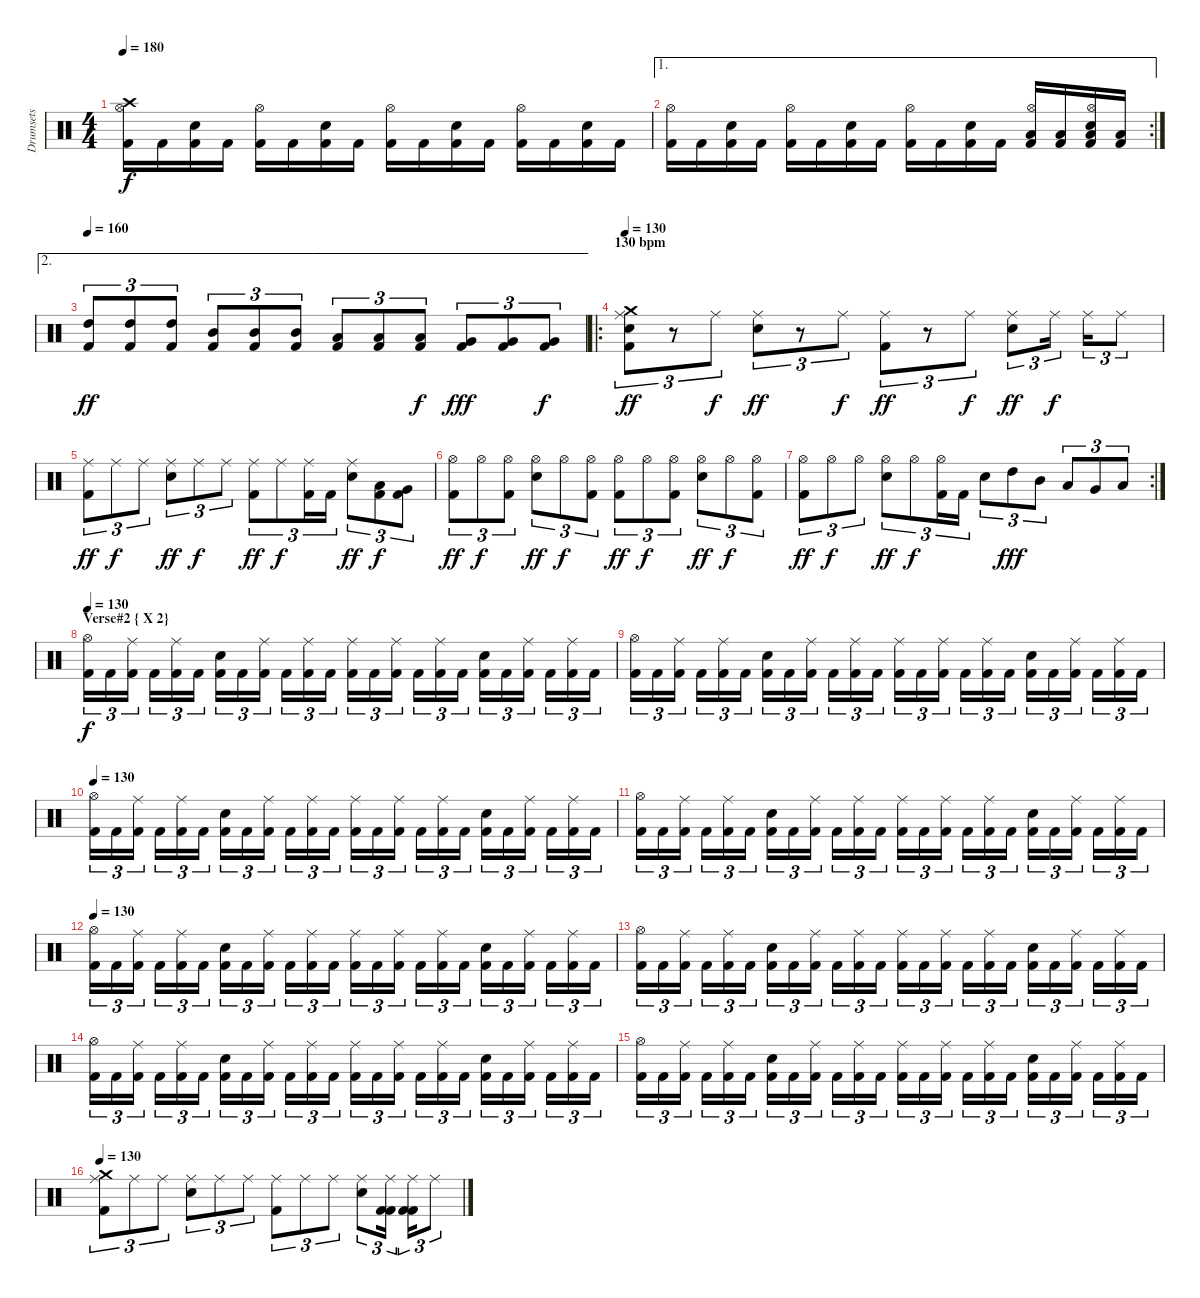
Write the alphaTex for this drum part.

\track ("Drumsets" "Drumsets") {instrument percussion}
\staff {score}
\articulation defaults
\ts (4 4)
\tempo 180
\clef neutral
\ks c
("Kick (hit) 2" "Hi-Hat (open)" "Crash high (hit)").16{dy f} "Kick (hit) 2".16 ("Kick (hit) 2" "Electric Snare (hit)").16 "Kick (hit) 2".16 ("Kick (hit) 2" "Hi-Hat (open)").16 "Kick (hit) 2".16 ("Kick (hit) 2" "Electric Snare (hit)").16 "Kick (hit) 2".16 ("Kick (hit) 2" "Hi-Hat (open)").16 "Kick (hit) 2".16 ("Kick (hit) 2" "Electric Snare (hit)").16 "Kick (hit) 2".16 ("Kick (hit) 2" "Hi-Hat (open)").16 "Kick (hit) 2".16 ("Kick (hit) 2" "Electric Snare (hit)").16 "Kick (hit) 2".16 |
\ae 1
\rc 2
("Kick (hit) 2" "Hi-Hat (open)").16 "Kick (hit) 2".16 ("Kick (hit) 2" "Electric Snare (hit)").16 "Kick (hit) 2".16 ("Kick (hit) 2" "Hi-Hat (open)").16 "Kick (hit) 2".16 ("Kick (hit) 2" "Electric Snare (hit)").16 "Kick (hit) 2".16 ("Kick (hit) 2" "Hi-Hat (open)").16 "Kick (hit) 2".16 ("Kick (hit) 2" "Electric Snare (hit)").16 "Kick (hit) 2".16 ("Kick (hit) 2" "Hi-Hat (open)" "Low Tom (hit)").16 ("Kick (hit) 2" "Low Tom (hit)").16 ("Kick (hit) 2" "Electric Snare (hit)" "Hi-Hat (open)" "Low Tom (hit)").16 ("Kick (hit) 2" "Low Tom (hit)").16 |
\ae 2
\tempo 160
("Kick (hit) 2" "High Tom (hit)").8{tu (3 2) dy ff} ("Kick (hit) 2" "High Tom (hit)").8{tu (3 2)} ("Kick (hit) 2" "High Tom (hit)").8{tu (3 2)} ("Kick (hit) 2" "Mid Tom (hit)").8{tu (3 2)} ("Kick (hit) 2" "Mid Tom (hit)").8{tu (3 2)} ("Kick (hit) 2" "Mid Tom (hit)").8{tu (3 2)} ("Kick (hit) 2" "Low Tom (hit)").8{tu (3 2)} ("Kick (hit) 2" "Low Tom (hit)").8{tu (3 2)} ("Kick (hit) 2" "Low Tom (hit)").8{tu (3 2) dy f} ("Kick (hit) 2" "Very Low Tom (hit)").8{tu (3 2) dy fff} ("Kick (hit) 2" "Very Low Tom (hit)").8{tu (3 2)} ("Kick (hit) 2" "Very Low Tom (hit)").8{tu (3 2) dy f} |
\ro
\section ("" "130 bpm")
\tempo 130
("Kick (hit) 2" "Snare (hit) 2" "Ride (middle)" "Crash medium (hit)").8{tu (3 2) dy ff} r.8{tu (3 2)} "Ride (middle)".8{tu (3 2) dy f} ("Snare (hit) 2" "Ride (middle)").8{tu (3 2) dy ff} r.8{tu (3 2)} "Ride (middle)".8{tu (3 2) dy f} ("Kick (hit) 2" "Ride (middle)").8{tu (3 2) dy ff} r.8{tu (3 2)} "Ride (middle)".8{tu (3 2) dy f} ("Snare (hit) 2" "Ride (middle)").8{tu (3 2) dy ff} "Ride (middle)".16{tu (3 2) dy f} "Ride (middle)".16{tu (3 2)} "Ride (middle)".8{tu (3 2)} |
("Kick (hit) 2" "Ride (middle)").8{tu (3 2) dy ff} "Ride (middle)".8{tu (3 2) dy f} "Ride (middle)".8{tu (3 2)} ("Snare (hit) 2" "Ride (middle)").8{tu (3 2) dy ff} "Ride (middle)".8{tu (3 2) dy f} "Ride (middle)".8{tu (3 2)} ("Kick (hit) 2" "Ride (middle)").8{tu (3 2) dy ff} "Ride (middle)".8{tu (3 2) dy f} ("Kick (hit) 2" "Ride (middle)").16{tu (3 2)} "Kick (hit) 2".16{tu (3 2)} ("Snare (hit) 2" "Ride (middle)").8{tu (3 2) dy ff} ("Kick (hit) 2" "Low Tom (hit)").8{tu (3 2) dy f} ("Kick (hit) 2" "Very Low Tom (hit)").8{tu (3 2)} |
("Kick (hit) 2" "Hi-Hat (open)").8{tu (3 2) dy ff} "Hi-Hat (open)".8{tu (3 2) dy f} ("Kick (hit) 2" "Hi-Hat (open)").8{tu (3 2)} ("Snare (hit) 2" "Hi-Hat (open)").8{tu (3 2) dy ff} "Hi-Hat (open)".8{tu (3 2) dy f} ("Kick (hit) 2" "Hi-Hat (open)").8{tu (3 2)} ("Kick (hit) 2" "Hi-Hat (open)").8{tu (3 2) dy ff} "Hi-Hat (open)".8{tu (3 2) dy f} ("Kick (hit) 2" "Hi-Hat (open)").8{tu (3 2)} ("Snare (hit) 2" "Hi-Hat (open)").8{tu (3 2) dy ff} "Hi-Hat (open)".8{tu (3 2) dy f} ("Kick (hit) 2" "Hi-Hat (open)").8{tu (3 2)} |
\rc 2
("Kick (hit) 2" "Hi-Hat (open)").8{tu (3 2) dy ff} "Hi-Hat (open)".8{tu (3 2) dy f} "Hi-Hat (open)".8{tu (3 2)} ("Snare (hit) 2" "Hi-Hat (open)").8{tu (3 2) dy ff} "Hi-Hat (open)".8{tu (3 2) dy f} ("Kick (hit) 2" "Hi-Hat (open)").16{tu (3 2)} "Kick (hit) 2".16{tu (3 2)} "Electric Snare (hit)".8{tu (3 2)} "High Tom (hit)".8{tu (3 2) dy fff} "Mid Tom (hit)".8{tu (3 2)} "Low Tom (hit)".8{tu (3 2)} "Very Low Tom (hit)".8{tu (3 2)} "Low Floor Tom (hit)".8{tu (3 2)} |
\section ("" "Verse#2 { X 2}")
\tempo 130
("Hi-Hat (open)" "Kick (hit) 2").16{tu (3 2) dy f} "Kick (hit) 2".16{tu (3 2)} ("Ride (middle)" "Kick (hit) 2").16{tu (3 2)} "Kick (hit) 2".16{tu (3 2)} ("Ride (middle)" "Kick (hit) 2").16{tu (3 2)} "Kick (hit) 2".16{tu (3 2)} ("Snare (hit) 2" "Kick (hit) 2").16{tu (3 2)} "Kick (hit) 2".16{tu (3 2)} ("Ride (middle)" "Kick (hit) 2").16{tu (3 2)} "Kick (hit) 2".16{tu (3 2)} ("Ride (middle)" "Kick (hit) 2").16{tu (3 2)} "Kick (hit) 2".16{tu (3 2)} ("Ride (middle)" "Kick (hit) 2").16{tu (3 2)} "Kick (hit) 2".16{tu (3 2)} ("Ride (middle)" "Kick (hit) 2").16{tu (3 2)} "Kick (hit) 2".16{tu (3 2)} ("Ride (middle)" "Kick (hit) 2").16{tu (3 2)} "Kick (hit) 2".16{tu (3 2)} ("Snare (hit) 2" "Kick (hit) 2").16{tu (3 2)} "Kick (hit) 2".16{tu (3 2)} ("Ride (middle)" "Kick (hit) 2").16{tu (3 2)} "Kick (hit) 2".16{tu (3 2)} ("Ride (middle)" "Kick (hit) 2").16{tu (3 2)} "Kick (hit) 2".16{tu (3 2)} |
("Hi-Hat (open)" "Kick (hit) 2").16{tu (3 2)} "Kick (hit) 2".16{tu (3 2)} ("Ride (middle)" "Kick (hit) 2").16{tu (3 2)} "Kick (hit) 2".16{tu (3 2)} ("Ride (middle)" "Kick (hit) 2").16{tu (3 2)} "Kick (hit) 2".16{tu (3 2)} ("Snare (hit) 2" "Kick (hit) 2").16{tu (3 2)} "Kick (hit) 2".16{tu (3 2)} ("Ride (middle)" "Kick (hit) 2").16{tu (3 2)} "Kick (hit) 2".16{tu (3 2)} ("Ride (middle)" "Kick (hit) 2").16{tu (3 2)} "Kick (hit) 2".16{tu (3 2)} ("Ride (middle)" "Kick (hit) 2").16{tu (3 2)} "Kick (hit) 2".16{tu (3 2)} ("Ride (middle)" "Kick (hit) 2").16{tu (3 2)} "Kick (hit) 2".16{tu (3 2)} ("Ride (middle)" "Kick (hit) 2").16{tu (3 2)} "Kick (hit) 2".16{tu (3 2)} ("Snare (hit) 2" "Kick (hit) 2").16{tu (3 2)} "Kick (hit) 2".16{tu (3 2)} ("Ride (middle)" "Kick (hit) 2").16{tu (3 2)} "Kick (hit) 2".16{tu (3 2)} ("Ride (middle)" "Kick (hit) 2").16{tu (3 2)} "Kick (hit) 2".16{tu (3 2)} |
\tempo 130
("Hi-Hat (open)" "Kick (hit) 2").16{tu (3 2)} "Kick (hit) 2".16{tu (3 2)} ("Ride (middle)" "Kick (hit) 2").16{tu (3 2)} "Kick (hit) 2".16{tu (3 2)} ("Ride (middle)" "Kick (hit) 2").16{tu (3 2)} "Kick (hit) 2".16{tu (3 2)} ("Snare (hit) 2" "Kick (hit) 2").16{tu (3 2)} "Kick (hit) 2".16{tu (3 2)} ("Ride (middle)" "Kick (hit) 2").16{tu (3 2)} "Kick (hit) 2".16{tu (3 2)} ("Ride (middle)" "Kick (hit) 2").16{tu (3 2)} "Kick (hit) 2".16{tu (3 2)} ("Ride (middle)" "Kick (hit) 2").16{tu (3 2)} "Kick (hit) 2".16{tu (3 2)} ("Ride (middle)" "Kick (hit) 2").16{tu (3 2)} "Kick (hit) 2".16{tu (3 2)} ("Ride (middle)" "Kick (hit) 2").16{tu (3 2)} "Kick (hit) 2".16{tu (3 2)} ("Snare (hit) 2" "Kick (hit) 2").16{tu (3 2)} "Kick (hit) 2".16{tu (3 2)} ("Ride (middle)" "Kick (hit) 2").16{tu (3 2)} "Kick (hit) 2".16{tu (3 2)} ("Ride (middle)" "Kick (hit) 2").16{tu (3 2)} "Kick (hit) 2".16{tu (3 2)} |
("Hi-Hat (open)" "Kick (hit) 2").16{tu (3 2)} "Kick (hit) 2".16{tu (3 2)} ("Ride (middle)" "Kick (hit) 2").16{tu (3 2)} "Kick (hit) 2".16{tu (3 2)} ("Ride (middle)" "Kick (hit) 2").16{tu (3 2)} "Kick (hit) 2".16{tu (3 2)} ("Snare (hit) 2" "Kick (hit) 2").16{tu (3 2)} "Kick (hit) 2".16{tu (3 2)} ("Ride (middle)" "Kick (hit) 2").16{tu (3 2)} "Kick (hit) 2".16{tu (3 2)} ("Ride (middle)" "Kick (hit) 2").16{tu (3 2)} "Kick (hit) 2".16{tu (3 2)} ("Ride (middle)" "Kick (hit) 2").16{tu (3 2)} "Kick (hit) 2".16{tu (3 2)} ("Ride (middle)" "Kick (hit) 2").16{tu (3 2)} "Kick (hit) 2".16{tu (3 2)} ("Ride (middle)" "Kick (hit) 2").16{tu (3 2)} "Kick (hit) 2".16{tu (3 2)} ("Snare (hit) 2" "Kick (hit) 2").16{tu (3 2)} "Kick (hit) 2".16{tu (3 2)} ("Ride (middle)" "Kick (hit) 2").16{tu (3 2)} "Kick (hit) 2".16{tu (3 2)} ("Ride (middle)" "Kick (hit) 2").16{tu (3 2)} "Kick (hit) 2".16{tu (3 2)} |
\tempo 130
("Hi-Hat (open)" "Kick (hit) 2").16{tu (3 2)} "Kick (hit) 2".16{tu (3 2)} ("Ride (middle)" "Kick (hit) 2").16{tu (3 2)} "Kick (hit) 2".16{tu (3 2)} ("Ride (middle)" "Kick (hit) 2").16{tu (3 2)} "Kick (hit) 2".16{tu (3 2)} ("Snare (hit) 2" "Kick (hit) 2").16{tu (3 2)} "Kick (hit) 2".16{tu (3 2)} ("Ride (middle)" "Kick (hit) 2").16{tu (3 2)} "Kick (hit) 2".16{tu (3 2)} ("Ride (middle)" "Kick (hit) 2").16{tu (3 2)} "Kick (hit) 2".16{tu (3 2)} ("Ride (middle)" "Kick (hit) 2").16{tu (3 2)} "Kick (hit) 2".16{tu (3 2)} ("Ride (middle)" "Kick (hit) 2").16{tu (3 2)} "Kick (hit) 2".16{tu (3 2)} ("Ride (middle)" "Kick (hit) 2").16{tu (3 2)} "Kick (hit) 2".16{tu (3 2)} ("Snare (hit) 2" "Kick (hit) 2").16{tu (3 2)} "Kick (hit) 2".16{tu (3 2)} ("Ride (middle)" "Kick (hit) 2").16{tu (3 2)} "Kick (hit) 2".16{tu (3 2)} ("Ride (middle)" "Kick (hit) 2").16{tu (3 2)} "Kick (hit) 2".16{tu (3 2)} |
("Hi-Hat (open)" "Kick (hit) 2").16{tu (3 2)} "Kick (hit) 2".16{tu (3 2)} ("Ride (middle)" "Kick (hit) 2").16{tu (3 2)} "Kick (hit) 2".16{tu (3 2)} ("Ride (middle)" "Kick (hit) 2").16{tu (3 2)} "Kick (hit) 2".16{tu (3 2)} ("Snare (hit) 2" "Kick (hit) 2").16{tu (3 2)} "Kick (hit) 2".16{tu (3 2)} ("Ride (middle)" "Kick (hit) 2").16{tu (3 2)} "Kick (hit) 2".16{tu (3 2)} ("Ride (middle)" "Kick (hit) 2").16{tu (3 2)} "Kick (hit) 2".16{tu (3 2)} ("Ride (middle)" "Kick (hit) 2").16{tu (3 2)} "Kick (hit) 2".16{tu (3 2)} ("Ride (middle)" "Kick (hit) 2").16{tu (3 2)} "Kick (hit) 2".16{tu (3 2)} ("Ride (middle)" "Kick (hit) 2").16{tu (3 2)} "Kick (hit) 2".16{tu (3 2)} ("Snare (hit) 2" "Kick (hit) 2").16{tu (3 2)} "Kick (hit) 2".16{tu (3 2)} ("Ride (middle)" "Kick (hit) 2").16{tu (3 2)} "Kick (hit) 2".16{tu (3 2)} ("Ride (middle)" "Kick (hit) 2").16{tu (3 2)} "Kick (hit) 2".16{tu (3 2)} |
("Hi-Hat (open)" "Kick (hit) 2").16{tu (3 2)} "Kick (hit) 2".16{tu (3 2)} ("Ride (middle)" "Kick (hit) 2").16{tu (3 2)} "Kick (hit) 2".16{tu (3 2)} ("Ride (middle)" "Kick (hit) 2").16{tu (3 2)} "Kick (hit) 2".16{tu (3 2)} ("Snare (hit) 2" "Kick (hit) 2").16{tu (3 2)} "Kick (hit) 2".16{tu (3 2)} ("Ride (middle)" "Kick (hit) 2").16{tu (3 2)} "Kick (hit) 2".16{tu (3 2)} ("Ride (middle)" "Kick (hit) 2").16{tu (3 2)} "Kick (hit) 2".16{tu (3 2)} ("Ride (middle)" "Kick (hit) 2").16{tu (3 2)} "Kick (hit) 2".16{tu (3 2)} ("Ride (middle)" "Kick (hit) 2").16{tu (3 2)} "Kick (hit) 2".16{tu (3 2)} ("Ride (middle)" "Kick (hit) 2").16{tu (3 2)} "Kick (hit) 2".16{tu (3 2)} ("Snare (hit) 2" "Kick (hit) 2").16{tu (3 2)} "Kick (hit) 2".16{tu (3 2)} ("Ride (middle)" "Kick (hit) 2").16{tu (3 2)} "Kick (hit) 2".16{tu (3 2)} ("Ride (middle)" "Kick (hit) 2").16{tu (3 2)} "Kick (hit) 2".16{tu (3 2)} |
("Hi-Hat (open)" "Kick (hit) 2").16{tu (3 2)} "Kick (hit) 2".16{tu (3 2)} ("Ride (middle)" "Kick (hit) 2").16{tu (3 2)} "Kick (hit) 2".16{tu (3 2)} ("Ride (middle)" "Kick (hit) 2").16{tu (3 2)} "Kick (hit) 2".16{tu (3 2)} ("Snare (hit) 2" "Kick (hit) 2").16{tu (3 2)} "Kick (hit) 2".16{tu (3 2)} ("Ride (middle)" "Kick (hit) 2").16{tu (3 2)} "Kick (hit) 2".16{tu (3 2)} ("Ride (middle)" "Kick (hit) 2").16{tu (3 2)} "Kick (hit) 2".16{tu (3 2)} ("Ride (middle)" "Kick (hit) 2").16{tu (3 2)} "Kick (hit) 2".16{tu (3 2)} ("Ride (middle)" "Kick (hit) 2").16{tu (3 2)} "Kick (hit) 2".16{tu (3 2)} ("Ride (middle)" "Kick (hit) 2").16{tu (3 2)} "Kick (hit) 2".16{tu (3 2)} ("Snare (hit) 2" "Kick (hit) 2").16{tu (3 2)} "Kick (hit) 2".16{tu (3 2)} ("Ride (middle)" "Kick (hit) 2").16{tu (3 2)} "Kick (hit) 2".16{tu (3 2)} ("Ride (middle)" "Kick (hit) 2").16{tu (3 2)} "Kick (hit) 2".16{tu (3 2)} |
\tempo 130
("Kick (hit) 2" "Ride (middle)" "Crash medium (hit)").8{tu (3 2)} "Ride (middle)".8{tu (3 2)} "Ride (middle)".8{tu (3 2)} ("Snare (hit) 2" "Ride (middle)").8{tu (3 2)} "Ride (middle)".8{tu (3 2)} "Ride (middle)".8{tu (3 2)} ("Kick (hit) 2" "Ride (middle)").8{tu (3 2)} "Ride (middle)".8{tu (3 2)} "Ride (middle)".8{tu (3 2)} ("Snare (hit) 2" "Ride (middle)").8{tu (3 2)} ("Kick (hit) 2" "Ride (middle)" "Kick (hit) 2").16{tu (3 2)} ("Kick (hit) 2" "Ride (middle)" "Kick (hit) 2").16{tu (3 2)} "Ride (middle)".8{tu (3 2)}
